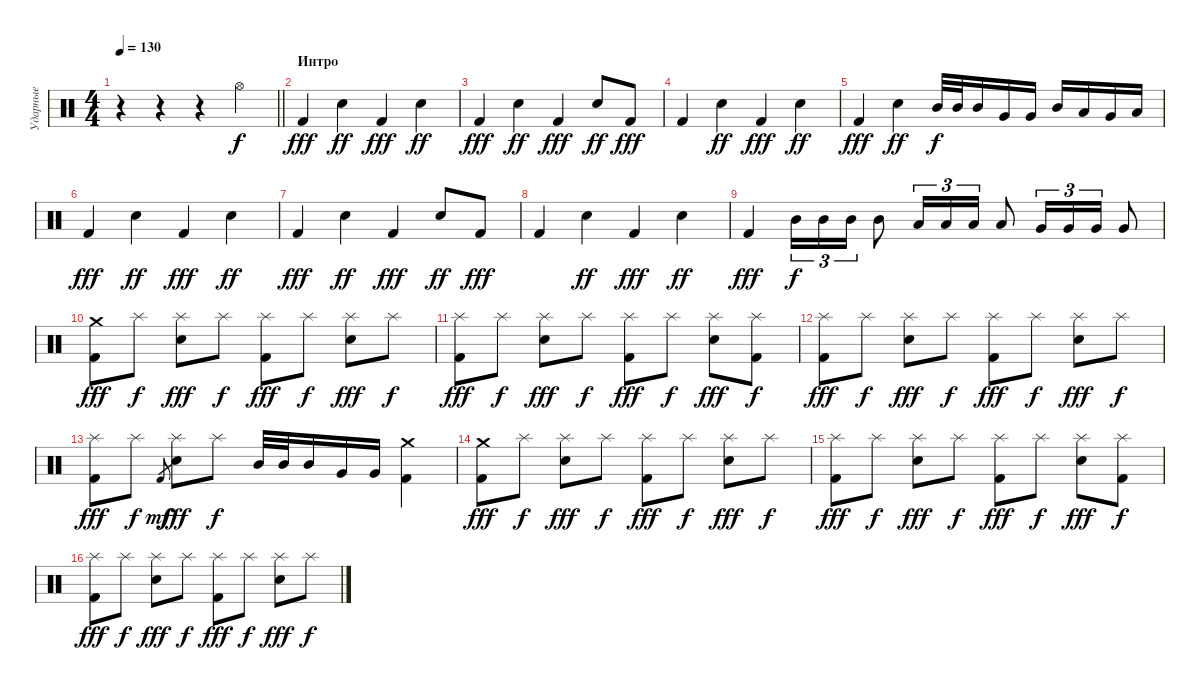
\track ("Ударные" "Ударные") {instrument percussion}
\staff {score}
\articulation defaults
\ts (4 4)
\tempo 130
\clef neutral
\barLineRight lightlight
\ks c
r.4{dy f} r.4 r.4 "Hi-Hat (open)".4 |
\section ("" "Интро")
"Kick (hit) 2".4{dy fff} "Electric Snare (hit)".4{dy ff} "Kick (hit) 2".4{dy fff} "Electric Snare (hit)".4{dy ff} |
"Kick (hit) 2".4{dy fff} "Electric Snare (hit)".4{dy ff} "Kick (hit) 2".4{dy fff} "Electric Snare (hit)".8{dy ff} "Kick (hit) 2".8{dy fff} |
"Kick (hit) 2".4 "Electric Snare (hit)".4{dy ff} "Kick (hit) 2".4{dy fff} "Electric Snare (hit)".4{dy ff} |
"Kick (hit) 2".4{dy fff} "Electric Snare (hit)".4{dy ff} "Mid Tom (hit)".32{dy f} "Mid Tom (hit)".32 "Mid Tom (hit)".16 "Very Low Tom (hit)".16 "Very Low Tom (hit)".16 "Mid Tom (hit)".16 "Low Tom (hit)".16 "Very Low Tom (hit)".16 "Low Floor Tom (hit)".16 |
"Kick (hit) 2".4{dy fff} "Electric Snare (hit)".4{dy ff} "Kick (hit) 2".4{dy fff} "Electric Snare (hit)".4{dy ff} |
"Kick (hit) 2".4{dy fff} "Electric Snare (hit)".4{dy ff} "Kick (hit) 2".4{dy fff} "Electric Snare (hit)".8{dy ff} "Kick (hit) 2".8{dy fff} |
"Kick (hit) 2".4 "Electric Snare (hit)".4{dy ff} "Kick (hit) 2".4{dy fff} "Electric Snare (hit)".4{dy ff} |
"Kick (hit) 2".4{dy fff} "Mid Tom (hit)".16{tu (3 2) dy f} "Mid Tom (hit)".16{tu (3 2)} "Mid Tom (hit)".16{tu (3 2)} "Mid Tom (hit)".8 "Low Tom (hit)".16{tu (3 2)} "Low Tom (hit)".16{tu (3 2)} "Low Tom (hit)".16{tu (3 2)} "Low Tom (hit)".8 "Very Low Tom (hit)".16{tu (3 2)} "Very Low Tom (hit)".16{tu (3 2)} "Very Low Tom (hit)".16{tu (3 2)} "Very Low Tom (hit)".8 |
("Kick (hit) 2" "Crash medium (hit)").8{dy fff} "Splash (hit)".8{dy f} ("Electric Snare (hit)" "Splash (hit)").8{dy fff} "Splash (hit)".8{dy f} ("Kick (hit) 2" "Splash (hit)").8{dy fff} "Splash (hit)".8{dy f} ("Electric Snare (hit)" "Splash (hit)").8{dy fff} "Splash (hit)".8{dy f} |
("Kick (hit) 2" "Splash (hit)").8{dy fff} "Splash (hit)".8{dy f} ("Electric Snare (hit)" "Splash (hit)").8{dy fff} "Splash (hit)".8{dy f} ("Kick (hit) 2" "Splash (hit)").8{dy fff} "Splash (hit)".8{dy f} ("Electric Snare (hit)" "Splash (hit)").8{dy fff} ("Kick (hit) 2" "Splash (hit)").8{dy f} |
("Kick (hit) 2" "Splash (hit)").8{dy fff} "Splash (hit)".8{dy f} ("Electric Snare (hit)" "Splash (hit)").8{dy fff} "Splash (hit)".8{dy f} ("Kick (hit) 2" "Splash (hit)").8{dy fff} "Splash (hit)".8{dy f} ("Electric Snare (hit)" "Splash (hit)").8{dy fff} "Splash (hit)".8{dy f} |
("Kick (hit) 2" "Splash (hit)").8{dy fff} "Splash (hit)".8{dy f} "Kick (hit) 2".8{gr dy mf} ("Electric Snare (hit)" "Splash (hit)").8{dy fff} "Splash (hit)".8{dy f} "Mid Tom (hit)".32 "Mid Tom (hit)".32 "Mid Tom (hit)".16 "Very Low Tom (hit)".16 "Very Low Tom (hit)".16 ("Kick (hit) 2" "Crash medium (hit)").4 |
("Kick (hit) 2" "Crash medium (hit)").8{dy fff} "Splash (hit)".8{dy f} ("Electric Snare (hit)" "Splash (hit)").8{dy fff} "Splash (hit)".8{dy f} ("Kick (hit) 2" "Splash (hit)").8{dy fff} "Splash (hit)".8{dy f} ("Electric Snare (hit)" "Splash (hit)").8{dy fff} "Splash (hit)".8{dy f} |
("Kick (hit) 2" "Splash (hit)").8{dy fff} "Splash (hit)".8{dy f} ("Electric Snare (hit)" "Splash (hit)").8{dy fff} "Splash (hit)".8{dy f} ("Kick (hit) 2" "Splash (hit)").8{dy fff} "Splash (hit)".8{dy f} ("Electric Snare (hit)" "Splash (hit)").8{dy fff} ("Kick (hit) 2" "Splash (hit)").8{dy f} |
("Kick (hit) 2" "Splash (hit)").8{dy fff} "Splash (hit)".8{dy f} ("Electric Snare (hit)" "Splash (hit)").8{dy fff} "Splash (hit)".8{dy f} ("Kick (hit) 2" "Splash (hit)").8{dy fff} "Splash (hit)".8{dy f} ("Electric Snare (hit)" "Splash (hit)").8{dy fff} "Splash (hit)".8{dy f}
